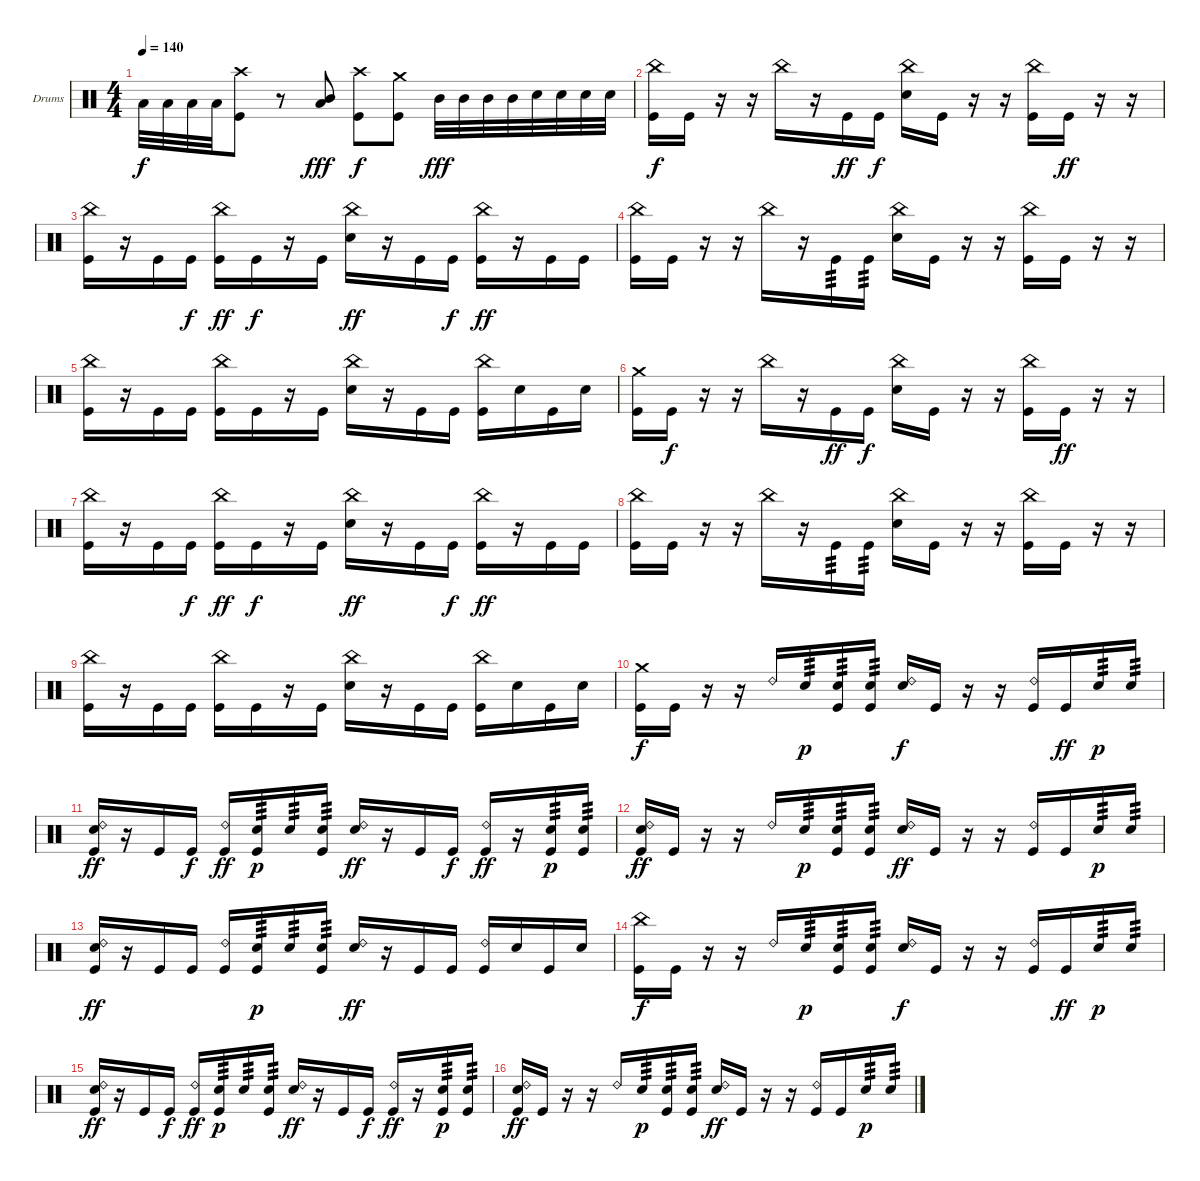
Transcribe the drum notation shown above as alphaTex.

\defaultSystemsLayout 4
\bracketExtendMode groupsimilarinstruments
\firstSystemTrackNameOrientation horizontal
\otherSystemsTrackNameOrientation horizontal
\track ("Drumkit" "Drums") {instrument percussion}
\staff {score}
\articulation defaults
\ts (4 4)
\tempo 140
\clef neutral
\ks c "Low Tom (hit)".32{dy f} "Low Tom (hit)".32 "Low Tom (hit)".32 "Low Tom (hit)".32
("Crash high (hit)" "Kick (hit)").8 r.8 ("Mid Tom (hit)" "Low Tom (hit)").8{dy fff} ("Crash high (hit)" "Kick (hit)").8{dy f} ("Crash medium (hit)" "Kick (hit)").8 "Mid Tom (hit)".32{dy fff} "Mid Tom (hit)".32 "Mid Tom (hit)".32 "Mid Tom (hit)".32 "Snare (hit) 2".32 "Snare (hit) 2".32 "Snare (hit) 2".32 "Snare (hit) 2".32 |
("China (hit)" "Kick (hit)").16{dy f} "Kick (hit)".16 r.16 r.16 "China (hit)".16 r.16 "Kick (hit)".16{dy ff} "Kick (hit)".16{dy f} ("China (hit)" "Snare (hit) 2").16 "Kick (hit)".16 r.16 r.16 ("China (hit)" "Kick (hit)").16 "Kick (hit)".16{dy ff} r.16 r.16 |
("China (hit)" "Kick (hit)").16 r.16 "Kick (hit)".16 "Kick (hit)".16{dy f} ("China (hit)" "Kick (hit)").16{dy ff} "Kick (hit)".16{dy f} r.16 "Kick (hit)".16 ("China (hit)" "Snare (hit) 2").16{dy ff} r.16 "Kick (hit)".16 "Kick (hit)".16{dy f} ("China (hit)" "Kick (hit)").16{dy ff} r.16 "Kick (hit)".16 "Kick (hit)".16 |
("China (hit)" "Kick (hit)").16 "Kick (hit)".16 r.16 r.16 "China (hit)".16 r.16 "Kick (hit)".16{tp 3} "Kick (hit)".16{tp 3} ("China (hit)" "Snare (hit) 2").16 "Kick (hit)".16 r.16 r.16 ("China (hit)" "Kick (hit)").16 "Kick (hit)".16 r.16 r.16 |
("China (hit)" "Kick (hit)").16 r.16 "Kick (hit)".16 "Kick (hit)".16 ("China (hit)" "Kick (hit)").16 "Kick (hit)".16 r.16 "Kick (hit)".16 ("China (hit)" "Snare (hit) 2").16 r.16 "Kick (hit)".16 "Kick (hit)".16 ("China (hit)" "Kick (hit)").16 "Snare (hit) 2".16 "Kick (hit)".16 "Snare (hit) 2".16 |
("Crash medium (hit)" "Kick (hit)").16 "Kick (hit)".16{dy f} r.16 r.16 "China (hit)".16 r.16 "Kick (hit)".16{dy ff} "Kick (hit)".16{dy f} ("China (hit)" "Snare (hit) 2").16 "Kick (hit)".16 r.16 r.16 ("China (hit)" "Kick (hit)").16 "Kick (hit)".16{dy ff} r.16 r.16 |
("China (hit)" "Kick (hit)").16 r.16 "Kick (hit)".16 "Kick (hit)".16{dy f} ("China (hit)" "Kick (hit)").16{dy ff} "Kick (hit)".16{dy f} r.16 "Kick (hit)".16 ("China (hit)" "Snare (hit) 2").16{dy ff} r.16 "Kick (hit)".16 "Kick (hit)".16{dy f} ("China (hit)" "Kick (hit)").16{dy ff} r.16 "Kick (hit)".16 "Kick (hit)".16 |
("China (hit)" "Kick (hit)").16 "Kick (hit)".16 r.16 r.16 "China (hit)".16 r.16 "Kick (hit)".16{tp 3} "Kick (hit)".16{tp 3} ("China (hit)" "Snare (hit) 2").16 "Kick (hit)".16 r.16 r.16 ("China (hit)" "Kick (hit)").16 "Kick (hit)".16 r.16 r.16 |
("China (hit)" "Kick (hit)").16 r.16 "Kick (hit)".16 "Kick (hit)".16 ("China (hit)" "Kick (hit)").16 "Kick (hit)".16 r.16 "Kick (hit)".16 ("China (hit)" "Snare (hit) 2").16 r.16 "Kick (hit)".16 "Kick (hit)".16 ("China (hit)" "Kick (hit)").16 "Snare (hit) 2".16 "Kick (hit)".16 "Snare (hit) 2".16 |
("Crash medium (hit)" "Kick (hit)").16{dy f} "Kick (hit)".16 r.16 r.16 "Ride (bell) 2".16 "Snare (hit) 2".16{tp 3 dy p} ("Snare (hit) 2" "Kick (hit)").16{tp 3} ("Snare (hit) 2" "Kick (hit)").16{tp 3} ("Ride (bell) 2" "Snare (hit) 2").16{dy f} "Kick (hit)".16 r.16 r.16 ("Ride (bell) 2" "Kick (hit)").16 "Kick (hit)".16{dy ff} "Snare (hit) 2".16{tp 3 dy p} "Snare (hit) 2".16{tp 3} |
("Ride (bell) 2" "Snare (hit) 2" "Kick (hit)").16{dy ff} r.16 "Kick (hit)".16 "Kick (hit)".16{dy f} ("Ride (bell) 2" "Kick (hit)").16{dy ff} ("Snare (hit) 2" "Kick (hit)").16{tp 3 dy p} "Snare (hit) 2".16{tp 3} ("Snare (hit) 2" "Kick (hit)").16{tp 3} ("Ride (bell) 2" "Snare (hit) 2").16{dy ff} r.16 "Kick (hit)".16 "Kick (hit)".16{dy f} ("Ride (bell) 2" "Kick (hit)").16{dy ff} r.16 ("Snare (hit) 2" "Kick (hit)").16{tp 3 dy p} ("Snare (hit) 2" "Kick (hit)").16{tp 3} |
("Ride (bell) 2" "Snare (hit) 2" "Kick (hit)").16{dy ff} "Kick (hit)".16 r.16 r.16 "Ride (bell) 2".16 "Snare (hit) 2".16{tp 3 dy p} ("Snare (hit) 2" "Kick (hit)").16{tp 3} ("Snare (hit) 2" "Kick (hit)").16{tp 3} ("Ride (bell) 2" "Snare (hit) 2").16{dy ff} "Kick (hit)".16 r.16 r.16 ("Ride (bell) 2" "Kick (hit)").16 "Kick (hit)".16 "Snare (hit) 2".16{tp 3 dy p} "Snare (hit) 2".16{tp 3} |
("Ride (bell) 2" "Snare (hit) 2" "Kick (hit)").16{dy ff} r.16 "Kick (hit)".16 "Kick (hit)".16 ("Ride (bell) 2" "Kick (hit)").16 ("Snare (hit) 2" "Kick (hit)").16{tp 3 dy p} "Snare (hit) 2".16{tp 3} ("Snare (hit) 2" "Kick (hit)").16{tp 3} ("Ride (bell) 2" "Snare (hit) 2").16{dy ff} r.16 "Kick (hit)".16 "Kick (hit)".16 ("Ride (bell) 2" "Kick (hit)").16 "Snare (hit) 2".16 "Kick (hit)".16 "Snare (hit) 2".16 |
("China (hit)" "Kick (hit)").16{dy f} "Kick (hit)".16 r.16 r.16 "Ride (bell) 2".16 "Snare (hit) 2".16{tp 3 dy p} ("Snare (hit) 2" "Kick (hit)").16{tp 3} ("Snare (hit) 2" "Kick (hit)").16{tp 3} ("Ride (bell) 2" "Snare (hit) 2").16{dy f} "Kick (hit)".16 r.16 r.16 ("Ride (bell) 2" "Kick (hit)").16 "Kick (hit)".16{dy ff} "Snare (hit) 2".16{tp 3 dy p} "Snare (hit) 2".16{tp 3} |
("Ride (bell) 2" "Snare (hit) 2" "Kick (hit)").16{dy ff} r.16 "Kick (hit)".16 "Kick (hit)".16{dy f} ("Ride (bell) 2" "Kick (hit)").16{dy ff} ("Snare (hit) 2" "Kick (hit)").16{tp 3 dy p} "Snare (hit) 2".16{tp 3} ("Snare (hit) 2" "Kick (hit)").16{tp 3} ("Ride (bell) 2" "Snare (hit) 2").16{dy ff} r.16 "Kick (hit)".16 "Kick (hit)".16{dy f} ("Ride (bell) 2" "Kick (hit)").16{dy ff} r.16 ("Snare (hit) 2" "Kick (hit)").16{tp 3 dy p} ("Snare (hit) 2" "Kick (hit)").16{tp 3} |
("Ride (bell) 2" "Snare (hit) 2" "Kick (hit)").16{dy ff} "Kick (hit)".16 r.16 r.16 "Ride (bell) 2".16 "Snare (hit) 2".16{tp 3 dy p} ("Snare (hit) 2" "Kick (hit)").16{tp 3} ("Snare (hit) 2" "Kick (hit)").16{tp 3} ("Ride (bell) 2" "Snare (hit) 2").16{dy ff} "Kick (hit)".16 r.16 r.16 ("Ride (bell) 2" "Kick (hit)").16 "Kick (hit)".16 "Snare (hit) 2".16{tp 3 dy p} "Snare (hit) 2".16{tp 3}
